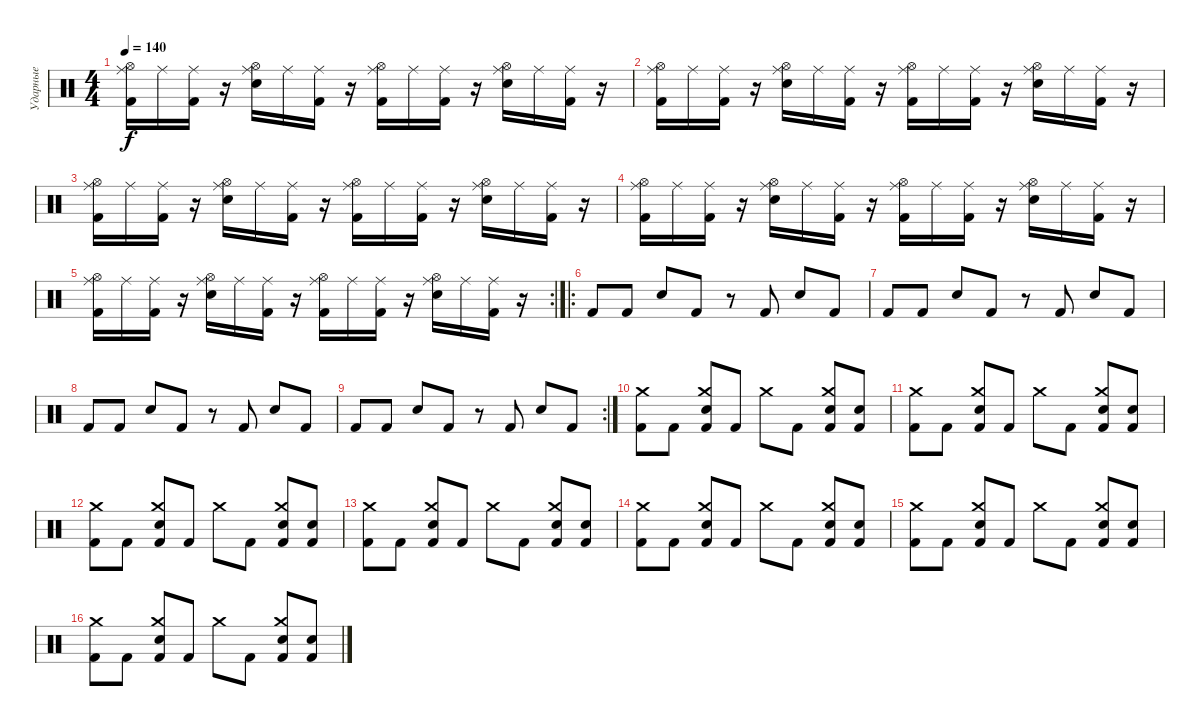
\track ("Ударные" "Ударные") {instrument percussion}
\staff {score}
\articulation defaults
\ts (4 4)
\tempo 140
\clef neutral
\ks c
("Kick (hit) 2" "Hi-Hat (open)" "Ride (middle)").16{dy f} "Ride (middle)".16 ("Kick (hit) 2" "Ride (middle)").16 r.16 ("Hi-Hat (open)" "Electric Snare (hit)" "Ride (middle)").16 "Ride (middle)".16 ("Kick (hit) 2" "Ride (middle)").16 r.16 ("Kick (hit) 2" "Hi-Hat (open)" "Ride (middle)").16 "Ride (middle)".16 ("Kick (hit) 2" "Ride (middle)").16 r.16 ("Hi-Hat (open)" "Electric Snare (hit)" "Ride (middle)").16 "Ride (middle)".16 ("Kick (hit) 2" "Ride (middle)").16 r.16 |
("Kick (hit) 2" "Hi-Hat (open)" "Ride (middle)").16 "Ride (middle)".16 ("Kick (hit) 2" "Ride (middle)").16 r.16 ("Hi-Hat (open)" "Electric Snare (hit)" "Ride (middle)").16 "Ride (middle)".16 ("Kick (hit) 2" "Ride (middle)").16 r.16 ("Kick (hit) 2" "Hi-Hat (open)" "Ride (middle)").16 "Ride (middle)".16 ("Kick (hit) 2" "Ride (middle)").16 r.16 ("Hi-Hat (open)" "Electric Snare (hit)" "Ride (middle)").16 "Ride (middle)".16 ("Kick (hit) 2" "Ride (middle)").16 r.16 |
("Kick (hit) 2" "Hi-Hat (open)" "Ride (middle)").16 "Ride (middle)".16 ("Kick (hit) 2" "Ride (middle)").16 r.16 ("Hi-Hat (open)" "Electric Snare (hit)" "Ride (middle)").16 "Ride (middle)".16 ("Kick (hit) 2" "Ride (middle)").16 r.16 ("Kick (hit) 2" "Hi-Hat (open)" "Ride (middle)").16 "Ride (middle)".16 ("Kick (hit) 2" "Ride (middle)").16 r.16 ("Hi-Hat (open)" "Electric Snare (hit)" "Ride (middle)").16 "Ride (middle)".16 ("Kick (hit) 2" "Ride (middle)").16 r.16 |
("Kick (hit) 2" "Hi-Hat (open)" "Ride (middle)").16 "Ride (middle)".16 ("Kick (hit) 2" "Ride (middle)").16 r.16 ("Hi-Hat (open)" "Electric Snare (hit)" "Ride (middle)").16 "Ride (middle)".16 ("Kick (hit) 2" "Ride (middle)").16 r.16 ("Kick (hit) 2" "Hi-Hat (open)" "Ride (middle)").16 "Ride (middle)".16 ("Kick (hit) 2" "Ride (middle)").16 r.16 ("Hi-Hat (open)" "Electric Snare (hit)" "Ride (middle)").16 "Ride (middle)".16 ("Kick (hit) 2" "Ride (middle)").16 r.16 |
\rc 2
("Kick (hit) 2" "Hi-Hat (open)" "Ride (middle)").16 "Ride (middle)".16 ("Kick (hit) 2" "Ride (middle)").16 r.16 ("Hi-Hat (open)" "Electric Snare (hit)" "Ride (middle)").16 "Ride (middle)".16 ("Kick (hit) 2" "Ride (middle)").16 r.16 ("Kick (hit) 2" "Hi-Hat (open)" "Ride (middle)").16 "Ride (middle)".16 ("Kick (hit) 2" "Ride (middle)").16 r.16 ("Hi-Hat (open)" "Electric Snare (hit)" "Ride (middle)").16 "Ride (middle)".16 ("Kick (hit) 2" "Ride (middle)").16 r.16 |
\ro "Kick (hit) 2".8{volume 7 balance 0} "Kick (hit) 2".8 "Electric Snare (hit)".8 "Kick (hit) 2".8
r.8 "Kick (hit) 2".8 "Electric Snare (hit)".8 "Kick (hit) 2".8 |
"Kick (hit) 2".8 "Kick (hit) 2".8 "Electric Snare (hit)".8 "Kick (hit) 2".8 r.8 "Kick (hit) 2".8 "Electric Snare (hit)".8 "Kick (hit) 2".8 |
"Kick (hit) 2".8 "Kick (hit) 2".8 "Electric Snare (hit)".8 "Kick (hit) 2".8 r.8 "Kick (hit) 2".8 "Electric Snare (hit)".8 "Kick (hit) 2".8 |
\rc 2 "Kick (hit) 2".8 "Kick (hit) 2".8 "Electric Snare (hit)".8 "Kick (hit) 2".8
r.8 "Kick (hit) 2".8 "Electric Snare (hit)".8 "Kick (hit) 2".8 |
("Crash medium (hit)" "Kick (hit) 2").8{volume 14 balance 8} "Kick (hit) 2".8 ("Crash medium (hit)" "Kick (hit) 2" "Snare (hit) 2").8 "Kick (hit) 2".8 "Crash medium (hit)".8 "Kick (hit) 2".8 ("Crash medium (hit)" "Snare (hit) 2" "Kick (hit) 2").8 ("Snare (hit) 2" "Kick (hit) 2").8 |
("Crash medium (hit)" "Kick (hit) 2").8 "Kick (hit) 2".8 ("Crash medium (hit)" "Kick (hit) 2" "Snare (hit) 2").8 "Kick (hit) 2".8 "Crash medium (hit)".8 "Kick (hit) 2".8 ("Crash medium (hit)" "Snare (hit) 2" "Kick (hit) 2").8 ("Snare (hit) 2" "Kick (hit) 2").8 |
("Crash medium (hit)" "Kick (hit) 2").8 "Kick (hit) 2".8 ("Crash medium (hit)" "Kick (hit) 2" "Snare (hit) 2").8 "Kick (hit) 2".8 "Crash medium (hit)".8 "Kick (hit) 2".8 ("Crash medium (hit)" "Snare (hit) 2" "Kick (hit) 2").8 ("Snare (hit) 2" "Kick (hit) 2").8 |
("Crash medium (hit)" "Kick (hit) 2").8 "Kick (hit) 2".8 ("Crash medium (hit)" "Kick (hit) 2" "Snare (hit) 2").8 "Kick (hit) 2".8 "Crash medium (hit)".8 "Kick (hit) 2".8 ("Crash medium (hit)" "Snare (hit) 2" "Kick (hit) 2").8 ("Snare (hit) 2" "Kick (hit) 2").8 |
("Crash medium (hit)" "Kick (hit) 2").8 "Kick (hit) 2".8 ("Crash medium (hit)" "Kick (hit) 2" "Snare (hit) 2").8 "Kick (hit) 2".8 "Crash medium (hit)".8 "Kick (hit) 2".8 ("Crash medium (hit)" "Snare (hit) 2" "Kick (hit) 2").8 ("Snare (hit) 2" "Kick (hit) 2").8 |
("Crash medium (hit)" "Kick (hit) 2").8 "Kick (hit) 2".8 ("Crash medium (hit)" "Kick (hit) 2" "Snare (hit) 2").8 "Kick (hit) 2".8 "Crash medium (hit)".8 "Kick (hit) 2".8 ("Crash medium (hit)" "Snare (hit) 2" "Kick (hit) 2").8 ("Snare (hit) 2" "Kick (hit) 2").8 |
("Crash medium (hit)" "Kick (hit) 2").8 "Kick (hit) 2".8 ("Crash medium (hit)" "Kick (hit) 2" "Snare (hit) 2").8 "Kick (hit) 2".8 "Crash medium (hit)".8 "Kick (hit) 2".8 ("Crash medium (hit)" "Snare (hit) 2" "Kick (hit) 2").8 ("Snare (hit) 2" "Kick (hit) 2").8
